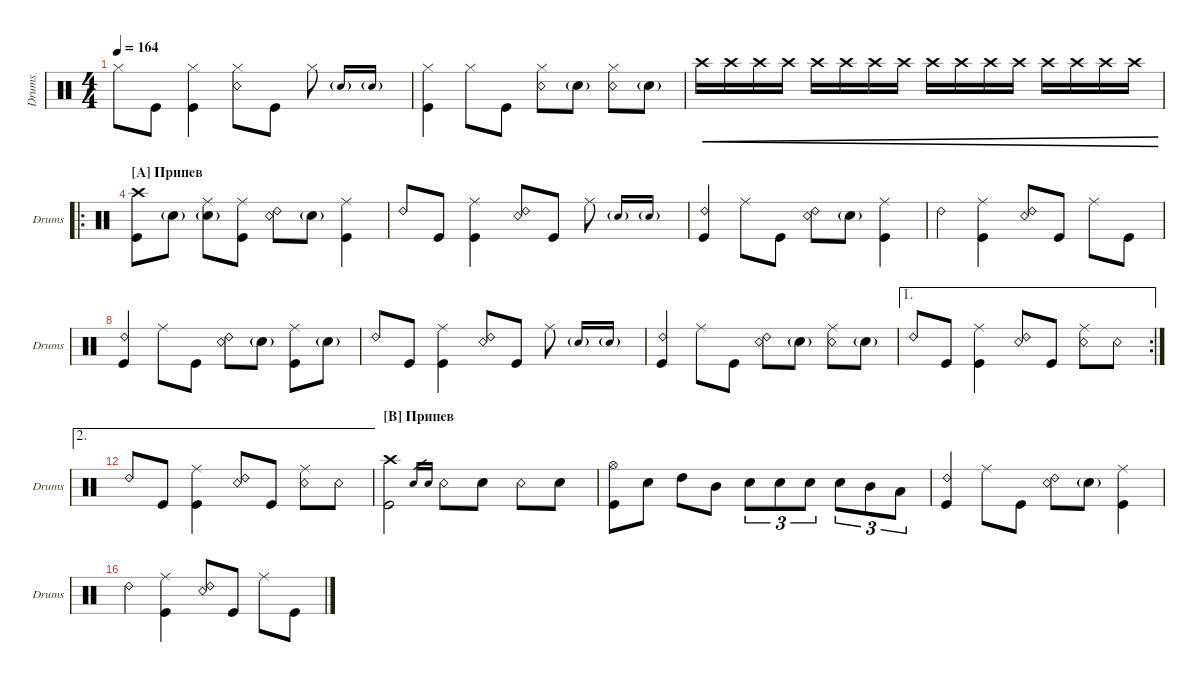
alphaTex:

\defaultSystemsLayout 4
\hideDynamics
\bracketExtendMode groupsimilarinstruments
\singleTrackTrackNamePolicy allsystems
\multiTrackTrackNamePolicy allsystems
\otherSystemsTrackNameOrientation horizontal
\defaultBarNumberDisplay FirstOfSystem
\track ("Drumkit" "Drums") {instrument percussion}
\staff {score}
\articulation defaults
\ts (4 4)
\tempo 164
\clef neutral
\ks c "Hi-Hat (closed)".8{dy f} "Kick (hit)".8
("Kick (hit)" "Hi-Hat (closed)").4 ("Snare (rim shot)" "Hi-Hat (closed)").8 "Kick (hit)".8 "Hi-Hat (closed)".8 "Snare (hit) 2"{g}.16{gr onbeat} "Snare (hit) 2"{g}.16{gr onbeat} |
("Hi-Hat (closed)" "Kick (hit)").4 "Hi-Hat (closed)".8 "Kick (hit)".8 ("Hi-Hat (closed)" "Snare (rim shot)").8 "Snare (hit) 2"{g}.8 ("Hi-Hat (closed)" "Snare (rim shot)").8 "Snare (hit) 2"{g}.8 |
"Crash high (hit)".16{cre} "Crash high (hit)".16{cre} "Crash high (hit)".16{cre} "Crash high (hit)".16{cre} "Crash high (hit)".16{cre} "Crash high (hit)".16{cre} "Crash high (hit)".16{cre} "Crash high (hit)".16{cre} "Crash high (hit)".16{cre} "Crash high (hit)".16{cre} "Crash high (hit)".16{cre} "Crash high (hit)".16{cre} "Crash high (hit)".16{cre} "Crash high (hit)".16{cre} "Crash high (hit)".16{cre} "Crash high (hit)".16{cre} |
\ro
\section ("A" "Припев")
("Crash high (hit)" "Kick (hit)").8 "Snare (hit) 2"{g}.8 ("Snare (hit) 2"{g} "Ride (middle)").8 ("Kick (hit)" "Ride (middle)").8 ("Snare (rim shot)" "Ride (bell) 2").8 "Snare (hit) 2"{g}.8 ("Kick (hit)" "Ride (middle)").4 |
"Ride (bell) 2".8 "Kick (hit)".8 ("Kick (hit)" "Ride (middle)").4 ("Snare (rim shot)" "Ride (bell) 2").8 "Kick (hit)".8 "Ride (middle)".8 "Snare (hit) 2"{g}.16{gr onbeat} "Snare (hit) 2"{g}.16{gr onbeat} |
("Kick (hit)" "Ride (bell) 2").4 "Ride (middle)".8 "Kick (hit)".8 ("Snare (rim shot)" "Ride (bell) 2").8 "Snare (hit) 2"{g}.8 ("Kick (hit)" "Ride (middle)").4 |
"Ride (bell) 2".4 ("Kick (hit)" "Ride (middle)").4 ("Snare (rim shot)" "Ride (bell) 2").8 "Kick (hit)".8 "Ride (middle)".8 "Kick (hit)".8 |
("Kick (hit)" "Ride (bell) 2").4 "Ride (middle)".8 "Kick (hit)".8 ("Snare (rim shot)" "Ride (bell) 2").8 "Snare (hit) 2"{g}.8 ("Kick (hit)" "Ride (middle)").8 "Snare (hit) 2"{g}.8 |
"Ride (bell) 2".8 "Kick (hit)".8 ("Kick (hit)" "Ride (middle)").4 ("Snare (rim shot)" "Ride (bell) 2").8 "Kick (hit)".8 "Ride (middle)".8 "Snare (hit) 2"{g}.16{gr onbeat} "Snare (hit) 2"{g}.16{gr onbeat} |
("Kick (hit)" "Ride (bell) 2").4 "Ride (middle)".8 "Kick (hit)".8 ("Snare (rim shot)" "Ride (bell) 2").8 "Snare (hit) 2"{g}.8 ("Snare (rim shot)" "Ride (middle)").8 "Snare (hit) 2"{g}.8 |
\ae 1
\rc 2 "Ride (bell) 2".8 "Kick (hit)".8
("Kick (hit)" "Ride (middle)").4 ("Snare (rim shot)" "Ride (bell) 2").8 "Kick (hit)".8 ("Snare (rim shot)" "Ride (middle)").8 "Snare (rim shot)".8 |
\ae 2 "Ride (bell) 2".8 "Kick (hit)".8
("Kick (hit)" "Ride (middle)").4 ("Snare (rim shot)" "Ride (bell) 2").8 "Kick (hit)".8 ("Snare (rim shot)" "Ride (middle)").8 "Snare (rim shot)".8 |
\section ("B" "Припев")
("Kick (hit)" "Crash high (hit)").2 "Snare (hit) 2".16{gr} "Snare (hit) 2".16{gr} "Snare (rim shot)".8 "Snare (hit) 2".8 "Snare (rim shot)".8 "Snare (hit) 2".8 |
("Hi-Hat (open)" "Kick (hit)").8 "Snare (hit) 2".8 "High Tom (hit)".8 "Mid Tom (hit)".8 "Snare (hit) 2".8{tu (3 2)} "Snare (hit) 2".8{tu (3 2)} "Snare (hit) 2".8{tu (3 2)} "Snare (hit) 2".8{tu (3 2)} "Mid Tom (hit)".8{tu (3 2)} "Low Tom (hit)".8{tu (3 2)} |
("Kick (hit)" "Ride (bell) 2").4 "Ride (middle)".8 "Kick (hit)".8 ("Snare (rim shot)" "Ride (bell) 2").8 "Snare (hit) 2"{g}.8 ("Kick (hit)" "Ride (middle)").4 |
"Ride (bell) 2".4 ("Kick (hit)" "Ride (middle)").4 ("Snare (rim shot)" "Ride (bell) 2").8 "Kick (hit)".8 "Ride (middle)".8 "Kick (hit)".8
